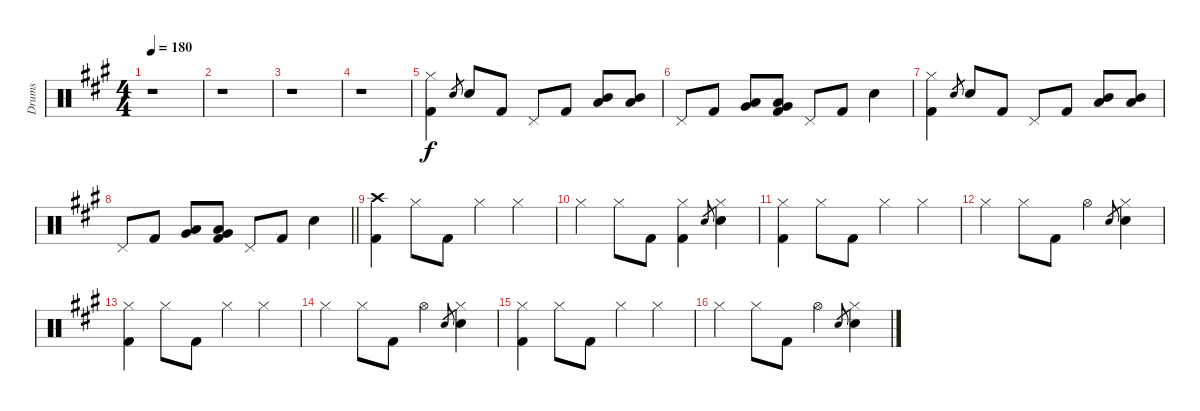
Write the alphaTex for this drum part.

\track ("Drums" "Drums") {instrument percussion}
\staff {score}
\articulation defaults
\ts (4 4)
\tempo 180
\clef neutral
\ks a
r.1{dy f} |
r.1 |
r.1 |
r.1 |
("Hi-Hat (closed)" "Kick (hit) 2").4 "Electric Snare (hit)".8{gr} "Electric Snare (hit)".8 "Kick (hit) 2".8 "Pedal Hi-Hat (hit)".8 "Kick (hit) 2".8 ("Mid Tom (hit)" "Low Tom (hit)").8 ("Mid Tom (hit)" "Low Tom (hit)").8 |
"Pedal Hi-Hat (hit)".8 "Kick (hit) 2".8 ("Low Tom (hit)" "Very Low Tom (hit)").8 ("Low Tom (hit)" "Very Low Tom (hit)" "Kick (hit) 2").8 "Pedal Hi-Hat (hit)".8 "Kick (hit) 2".8 "Electric Snare (hit)".4 |
("Hi-Hat (closed)" "Kick (hit) 2").4 "Electric Snare (hit)".8{gr} "Electric Snare (hit)".8 "Kick (hit) 2".8 "Pedal Hi-Hat (hit)".8 "Kick (hit) 2".8 ("Mid Tom (hit)" "Low Tom (hit)").8 ("Mid Tom (hit)" "Low Tom (hit)").8 |
\barLineRight lightlight "Pedal Hi-Hat (hit)".8 "Kick (hit) 2".8
("Low Tom (hit)" "Very Low Tom (hit)").8 ("Low Tom (hit)" "Very Low Tom (hit)" "Kick (hit) 2").8 "Pedal Hi-Hat (hit)".8 "Kick (hit) 2".8 "Electric Snare (hit)".4 |
("Crash high (hit)" "Kick (hit) 2").4 "Hi-Hat (closed)".8 "Kick (hit) 2".8 "Hi-Hat (closed)".4 "Hi-Hat (closed)".4 |
"Hi-Hat (closed)".4 "Hi-Hat (closed)".8 "Kick (hit) 2".8 ("Hi-Hat (closed)" "Kick (hit) 2").4 "Electric Snare (hit)".8{gr} ("Hi-Hat (closed)" "Electric Snare (hit)").4 |
("Hi-Hat (closed)" "Kick (hit) 2").4 "Hi-Hat (closed)".8 "Kick (hit) 2".8 "Hi-Hat (closed)".4 "Hi-Hat (closed)".4 |
"Hi-Hat (closed)".4 "Hi-Hat (closed)".8 "Kick (hit) 2".8 "Hi-Hat (open)".4 "Electric Snare (hit)".8{gr} ("Hi-Hat (closed)" "Electric Snare (hit)").4 |
("Hi-Hat (closed)" "Kick (hit) 2").4 "Hi-Hat (closed)".8 "Kick (hit) 2".8 "Hi-Hat (closed)".4 "Hi-Hat (closed)".4 |
"Hi-Hat (closed)".4 "Hi-Hat (closed)".8 "Kick (hit) 2".8 "Hi-Hat (open)".4 "Electric Snare (hit)".8{gr} ("Hi-Hat (closed)" "Electric Snare (hit)").4 |
("Hi-Hat (closed)" "Kick (hit) 2").4 "Hi-Hat (closed)".8 "Kick (hit) 2".8 "Hi-Hat (closed)".4 "Hi-Hat (closed)".4 |
"Hi-Hat (closed)".4 "Hi-Hat (closed)".8 "Kick (hit) 2".8 "Hi-Hat (open)".4 "Electric Snare (hit)".8{gr} ("Hi-Hat (closed)" "Electric Snare (hit)").4
